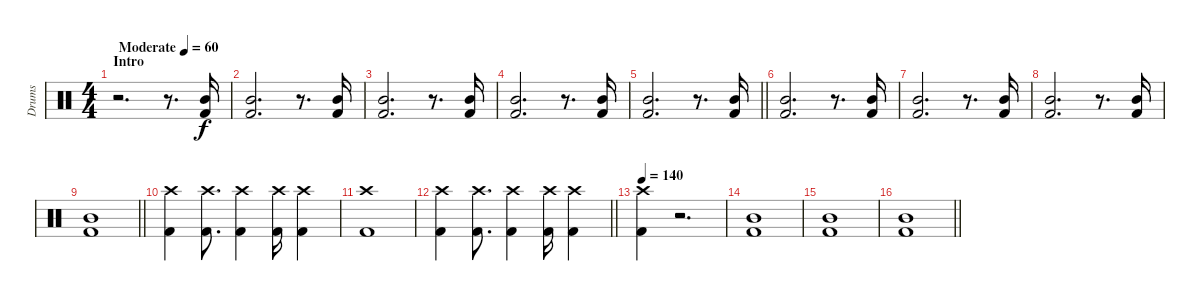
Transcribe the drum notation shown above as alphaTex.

\track ("Drums" "Drums") {instrument percussion}
\staff {score}
\articulation defaults
\ts (4 4)
\section ("" "Intro")
\tempo (60 "Moderate")
\clef neutral
\ks c
r.2{d dy f} r.8{d} ("Kick (hit) 2" "Mid Tom (hit)").16 |
("Kick (hit) 2" "Mid Tom (hit)").2{d} r.8{d} ("Kick (hit) 2" "Mid Tom (hit)").16 |
("Kick (hit) 2" "Mid Tom (hit)").2{d} r.8{d} ("Kick (hit) 2" "Mid Tom (hit)").16 |
("Kick (hit) 2" "Mid Tom (hit)").2{d} r.8{d} ("Kick (hit) 2" "Mid Tom (hit)").16 |
\barLineRight lightlight
("Kick (hit) 2" "Mid Tom (hit)").2{d} r.8{d} ("Kick (hit) 2" "Mid Tom (hit)").16 |
("Kick (hit) 2" "Mid Tom (hit)").2{d} r.8{d} ("Kick (hit) 2" "Mid Tom (hit)").16 |
("Kick (hit) 2" "Mid Tom (hit)").2{d} r.8{d} ("Kick (hit) 2" "Mid Tom (hit)").16 |
("Kick (hit) 2" "Mid Tom (hit)").2{d} r.8{d} ("Kick (hit) 2" "Mid Tom (hit)").16 |
\barLineRight lightlight
("Kick (hit) 2" "Mid Tom (hit)").1 |
("Kick (hit) 2" "Crash high (hit)").4 ("Crash high (hit)" "Kick (hit) 2").8{d} ("Crash high (hit)" "Kick (hit) 2").4 ("Crash high (hit)" "Kick (hit) 2").16 ("Crash high (hit)" "Kick (hit) 2").4 |
("Kick (hit) 2" "Crash high (hit)").1 |
\barLineRight lightlight
("Kick (hit) 2" "Crash high (hit)").4 ("Crash high (hit)" "Kick (hit) 2").8{d} ("Crash high (hit)" "Kick (hit) 2").4 ("Crash high (hit)" "Kick (hit) 2").16 ("Crash high (hit)" "Kick (hit) 2").4 |
\tempo 140
("Kick (hit) 2" "Crash high (hit)").4 r.2{d volume 0} |
("Kick (hit) 2" "Mid Tom (hit)").1{volume 13} |
("Kick (hit) 2" "Mid Tom (hit)").1 |
\barLineRight lightlight
("Kick (hit) 2" "Mid Tom (hit)").1
